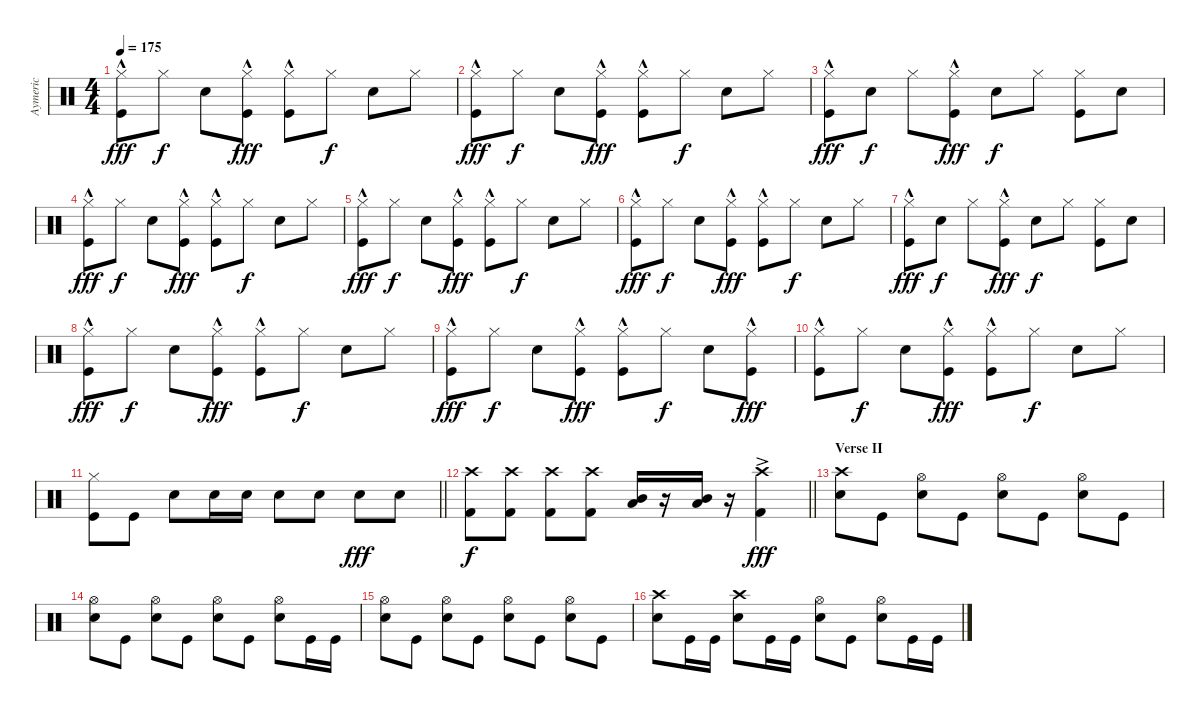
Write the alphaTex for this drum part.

\track ("Aymeric" "Aymeric") {instrument percussion}
\staff {score}
\articulation defaults
\ts (4 4)
\tempo 175
\clef neutral
\ks c
("Hi-Hat (closed)" "Kick (hit)"{hac}).8{dy fff} "Hi-Hat (closed)".8{dy f} "Snare (hit) 2".8 ("Hi-Hat (closed)" "Kick (hit)"{hac}).8{dy fff} ("Hi-Hat (closed)" "Kick (hit)"{hac}).8 "Hi-Hat (closed)".8{dy f} "Snare (hit) 2".8 "Hi-Hat (closed)".8 |
("Hi-Hat (closed)" "Kick (hit)"{hac}).8{dy fff} "Hi-Hat (closed)".8{dy f} "Snare (hit) 2".8 ("Hi-Hat (closed)" "Kick (hit)"{hac}).8{dy fff} ("Hi-Hat (closed)" "Kick (hit)"{hac}).8 "Hi-Hat (closed)".8{dy f} "Snare (hit) 2".8 "Hi-Hat (closed)".8 |
("Hi-Hat (closed)" "Kick (hit)"{hac}).8{dy fff} "Snare (hit) 2".8{dy f} "Hi-Hat (closed)".8 ("Hi-Hat (closed)" "Kick (hit)"{hac}).8{dy fff} "Snare (hit) 2".8{dy f} "Hi-Hat (closed)".8 ("Hi-Hat (closed)" "Kick (hit)").8 "Snare (hit) 2".8 |
("Hi-Hat (closed)" "Kick (hit)"{hac}).8{dy fff} "Hi-Hat (closed)".8{dy f} "Snare (hit) 2".8 ("Hi-Hat (closed)" "Kick (hit)"{hac}).8{dy fff} ("Hi-Hat (closed)" "Kick (hit)"{hac}).8 "Hi-Hat (closed)".8{dy f} "Snare (hit) 2".8 "Hi-Hat (closed)".8 |
("Hi-Hat (closed)" "Kick (hit)"{hac}).8{dy fff} "Hi-Hat (closed)".8{dy f} "Snare (hit) 2".8 ("Hi-Hat (closed)" "Kick (hit)"{hac}).8{dy fff} ("Hi-Hat (closed)" "Kick (hit)"{hac}).8 "Hi-Hat (closed)".8{dy f} "Snare (hit) 2".8 "Hi-Hat (closed)".8 |
("Hi-Hat (closed)" "Kick (hit)"{hac}).8{dy fff} "Hi-Hat (closed)".8{dy f} "Snare (hit) 2".8 ("Hi-Hat (closed)" "Kick (hit)"{hac}).8{dy fff} ("Hi-Hat (closed)" "Kick (hit)"{hac}).8 "Hi-Hat (closed)".8{dy f} "Snare (hit) 2".8 "Hi-Hat (closed)".8 |
("Hi-Hat (closed)" "Kick (hit)"{hac}).8{dy fff} "Snare (hit) 2".8{dy f} "Hi-Hat (closed)".8 ("Hi-Hat (closed)" "Kick (hit)"{hac}).8{dy fff} "Snare (hit) 2".8{dy f} "Hi-Hat (closed)".8 ("Hi-Hat (closed)" "Kick (hit)").8 "Snare (hit) 2".8 |
("Hi-Hat (closed)" "Kick (hit)"{hac}).8{dy fff} "Hi-Hat (closed)".8{dy f} "Snare (hit) 2".8 ("Hi-Hat (closed)" "Kick (hit)"{hac}).8{dy fff} ("Hi-Hat (closed)" "Kick (hit)"{hac}).8 "Hi-Hat (closed)".8{dy f} "Snare (hit) 2".8 "Hi-Hat (closed)".8 |
("Hi-Hat (closed)" "Kick (hit)"{hac}).8{dy fff} "Hi-Hat (closed)".8{dy f} "Snare (hit) 2".8 ("Hi-Hat (closed)" "Kick (hit)"{hac}).8{dy fff} ("Hi-Hat (closed)" "Kick (hit)"{hac}).8 "Hi-Hat (closed)".8{dy f} "Snare (hit) 2".8 ("Hi-Hat (closed)" "Kick (hit)"{hac}).8{dy fff} |
("Hi-Hat (closed)" "Kick (hit)"{hac}).8 "Hi-Hat (closed)".8{dy f} "Snare (hit) 2".8 ("Hi-Hat (closed)" "Kick (hit)"{hac}).8{dy fff} ("Hi-Hat (closed)" "Kick (hit)"{hac}).8 "Hi-Hat (closed)".8{dy f} "Snare (hit) 2".8 "Hi-Hat (closed)".8 |
\barLineRight lightlight
("Hi-Hat (closed)" "Kick (hit)").8 "Kick (hit)".8 "Snare (hit) 2".8 "Snare (hit) 2".16 "Snare (hit) 2".16 "Snare (hit) 2".8 "Snare (hit) 2".8 "Snare (hit) 2".8{dy fff} "Snare (hit) 2".8 |
\barLineRight lightlight
("Crash high (hit)" "Kick (hit) 2").8{dy f} ("Crash high (hit)" "Kick (hit) 2").8 ("Crash high (hit)" "Kick (hit) 2").8 ("Crash high (hit)" "Kick (hit) 2").8 ("Mid Tom (hit)" "Low Floor Tom (hit)").16 r.16 ("Mid Tom (hit)" "Low Floor Tom (hit)").16 r.16 ("Crash high (hit)"{ac} "Kick (hit) 2"{ac}).4{dy fff} |
\section ("" "Verse II")
("Crash high (hit)" "Snare (hit) 2").8 "Kick (hit)".8 ("Hi-Hat (open)" "Snare (hit) 2").8 "Kick (hit)".8 ("Hi-Hat (open)" "Snare (hit) 2").8 "Kick (hit)".8 ("Hi-Hat (open)" "Snare (hit) 2").8 "Kick (hit)".8 |
("Hi-Hat (open)" "Snare (hit) 2").8 "Kick (hit)".8 ("Hi-Hat (open)" "Snare (hit) 2").8 "Kick (hit)".8 ("Hi-Hat (open)" "Snare (hit) 2").8 "Kick (hit)".8 ("Hi-Hat (open)" "Snare (hit) 2").8 "Kick (hit)".16 "Kick (hit)".16 |
("Hi-Hat (open)" "Snare (hit) 2").8 "Kick (hit)".8 ("Hi-Hat (open)" "Snare (hit) 2").8 "Kick (hit)".8 ("Hi-Hat (open)" "Snare (hit) 2").8 "Kick (hit)".8 ("Hi-Hat (open)" "Snare (hit) 2").8 "Kick (hit)".8 |
("Crash high (hit)" "Snare (hit) 2").8 "Kick (hit)".16 "Kick (hit)".16 ("Crash high (hit)" "Snare (hit) 2").8 "Kick (hit)".16 "Kick (hit)".16 ("Hi-Hat (open)" "Snare (hit) 2").8 "Kick (hit)".8 ("Hi-Hat (open)" "Snare (hit) 2").8 "Kick (hit)".16 "Kick (hit)".16
